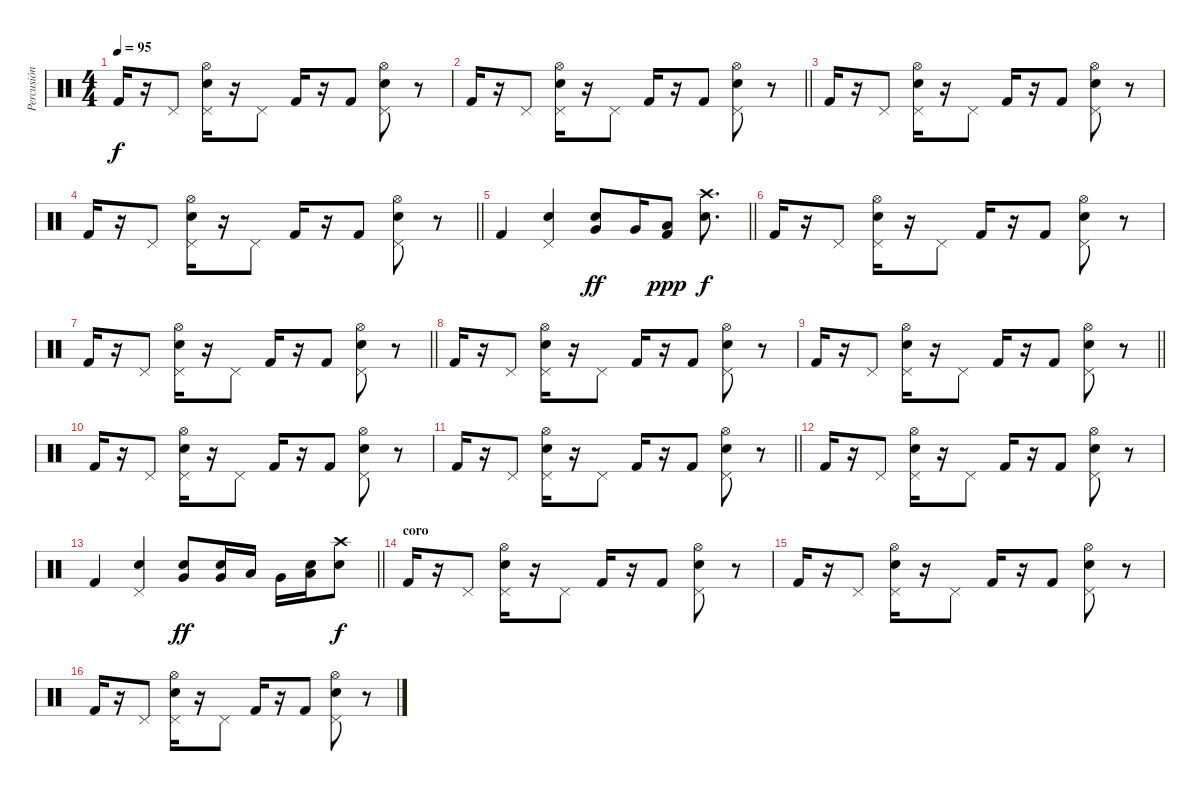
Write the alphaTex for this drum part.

\track ("Percusión" "Percusión") {instrument percussion}
\staff {score}
\articulation defaults
\ts (4 4)
\tempo 95
\clef neutral
\ks c "Kick (hit) 2".16{dy f}
r.16 "Pedal Hi-Hat (hit)".8 ("Snare (hit) 2" "Pedal Hi-Hat (hit)" "Hi-Hat (open)").16 r.16 "Pedal Hi-Hat (hit)".8 "Kick (hit) 2".16 r.16 "Kick (hit) 2".8 ("Snare (hit) 2" "Pedal Hi-Hat (hit)" "Hi-Hat (open)").8 r.8 |
\barLineRight lightlight "Kick (hit) 2".16
r.16 "Pedal Hi-Hat (hit)".8 ("Snare (hit) 2" "Pedal Hi-Hat (hit)" "Hi-Hat (open)").16 r.16 "Pedal Hi-Hat (hit)".8 "Kick (hit) 2".16 r.16 "Kick (hit) 2".8 ("Snare (hit) 2" "Pedal Hi-Hat (hit)" "Hi-Hat (open)").8 r.8 |
"Kick (hit) 2".16 r.16 "Pedal Hi-Hat (hit)".8 ("Snare (hit) 2" "Pedal Hi-Hat (hit)" "Hi-Hat (open)").16 r.16 "Pedal Hi-Hat (hit)".8 "Kick (hit) 2".16 r.16 "Kick (hit) 2".8 ("Snare (hit) 2" "Pedal Hi-Hat (hit)" "Hi-Hat (open)").8 r.8 |
\barLineRight lightlight "Kick (hit) 2".16
r.16 "Pedal Hi-Hat (hit)".8 ("Snare (hit) 2" "Pedal Hi-Hat (hit)" "Hi-Hat (open)").16 r.16 "Pedal Hi-Hat (hit)".8 "Kick (hit) 2".16 r.16 "Kick (hit) 2".8 ("Snare (hit) 2" "Pedal Hi-Hat (hit)" "Hi-Hat (open)").8 r.8 |
\barLineRight lightlight "Kick (hit) 2".4
("Snare (hit) 2" "Pedal Hi-Hat (hit)").4 ("Very Low Tom (hit)" "Snare (hit) 2").8{dy ff} "Very Low Tom (hit)".16 ("Low Tom (hit)" "Kick (hit) 2").8{dy ppp} ("Crash high (hit)" "Snare (hit) 2").8{d dy f} |
\section ("" "")
"Kick (hit) 2".16 r.16 "Pedal Hi-Hat (hit)".8 ("Snare (hit) 2" "Pedal Hi-Hat (hit)" "Hi-Hat (open)").16 r.16 "Pedal Hi-Hat (hit)".8 "Kick (hit) 2".16 r.16 "Kick (hit) 2".8 ("Snare (hit) 2" "Pedal Hi-Hat (hit)" "Hi-Hat (open)").8 r.8 |
\barLineRight lightlight "Kick (hit) 2".16
r.16 "Pedal Hi-Hat (hit)".8 ("Snare (hit) 2" "Pedal Hi-Hat (hit)" "Hi-Hat (open)").16 r.16 "Pedal Hi-Hat (hit)".8 "Kick (hit) 2".16 r.16 "Kick (hit) 2".8 ("Snare (hit) 2" "Pedal Hi-Hat (hit)" "Hi-Hat (open)").8 r.8 |
"Kick (hit) 2".16 r.16 "Pedal Hi-Hat (hit)".8 ("Snare (hit) 2" "Pedal Hi-Hat (hit)" "Hi-Hat (open)").16 r.16 "Pedal Hi-Hat (hit)".8 "Kick (hit) 2".16 r.16 "Kick (hit) 2".8 ("Snare (hit) 2" "Pedal Hi-Hat (hit)" "Hi-Hat (open)").8 r.8 |
\barLineRight lightlight "Kick (hit) 2".16
r.16 "Pedal Hi-Hat (hit)".8 ("Snare (hit) 2" "Pedal Hi-Hat (hit)" "Hi-Hat (open)").16 r.16 "Pedal Hi-Hat (hit)".8 "Kick (hit) 2".16 r.16 "Kick (hit) 2".8 ("Snare (hit) 2" "Pedal Hi-Hat (hit)" "Hi-Hat (open)").8 r.8 |
"Kick (hit) 2".16 r.16 "Pedal Hi-Hat (hit)".8 ("Snare (hit) 2" "Pedal Hi-Hat (hit)" "Hi-Hat (open)").16 r.16 "Pedal Hi-Hat (hit)".8 "Kick (hit) 2".16 r.16 "Kick (hit) 2".8 ("Snare (hit) 2" "Pedal Hi-Hat (hit)" "Hi-Hat (open)").8 r.8 |
\barLineRight lightlight "Kick (hit) 2".16
r.16 "Pedal Hi-Hat (hit)".8 ("Snare (hit) 2" "Pedal Hi-Hat (hit)" "Hi-Hat (open)").16 r.16 "Pedal Hi-Hat (hit)".8 "Kick (hit) 2".16 r.16 "Kick (hit) 2".8 ("Snare (hit) 2" "Pedal Hi-Hat (hit)" "Hi-Hat (open)").8 r.8 |
"Kick (hit) 2".16 r.16 "Pedal Hi-Hat (hit)".8 ("Snare (hit) 2" "Pedal Hi-Hat (hit)" "Hi-Hat (open)").16 r.16 "Pedal Hi-Hat (hit)".8 "Kick (hit) 2".16 r.16 "Kick (hit) 2".8 ("Snare (hit) 2" "Pedal Hi-Hat (hit)" "Hi-Hat (open)").8 r.8 |
\barLineRight lightlight "Kick (hit) 2".4
("Snare (hit) 2" "Pedal Hi-Hat (hit)").4 ("Very Low Tom (hit)" "Snare (hit) 2").8{dy ff} ("Very Low Tom (hit)" "Snare (hit) 2").16 "Low Tom (hit)".16 "Very Low Tom (hit)".16 ("Snare (hit) 2" "Low Floor Tom (hit)").16 ("Crash high (hit)" "Snare (hit) 2").8{dy f} |
\section ("" "coro")
"Kick (hit) 2".16 r.16 "Pedal Hi-Hat (hit)".8 ("Snare (hit) 2" "Pedal Hi-Hat (hit)" "Hi-Hat (open)").16 r.16 "Pedal Hi-Hat (hit)".8 "Kick (hit) 2".16 r.16 "Kick (hit) 2".8 ("Snare (hit) 2" "Pedal Hi-Hat (hit)" "Hi-Hat (open)").8 r.8 |
"Kick (hit) 2".16 r.16 "Pedal Hi-Hat (hit)".8 ("Snare (hit) 2" "Pedal Hi-Hat (hit)" "Hi-Hat (open)").16 r.16 "Pedal Hi-Hat (hit)".8 "Kick (hit) 2".16 r.16 "Kick (hit) 2".8 ("Snare (hit) 2" "Pedal Hi-Hat (hit)" "Hi-Hat (open)").8 r.8 |
"Kick (hit) 2".16 r.16 "Pedal Hi-Hat (hit)".8 ("Snare (hit) 2" "Pedal Hi-Hat (hit)" "Hi-Hat (open)").16 r.16 "Pedal Hi-Hat (hit)".8 "Kick (hit) 2".16 r.16 "Kick (hit) 2".8 ("Snare (hit) 2" "Pedal Hi-Hat (hit)" "Hi-Hat (open)").8 r.8
